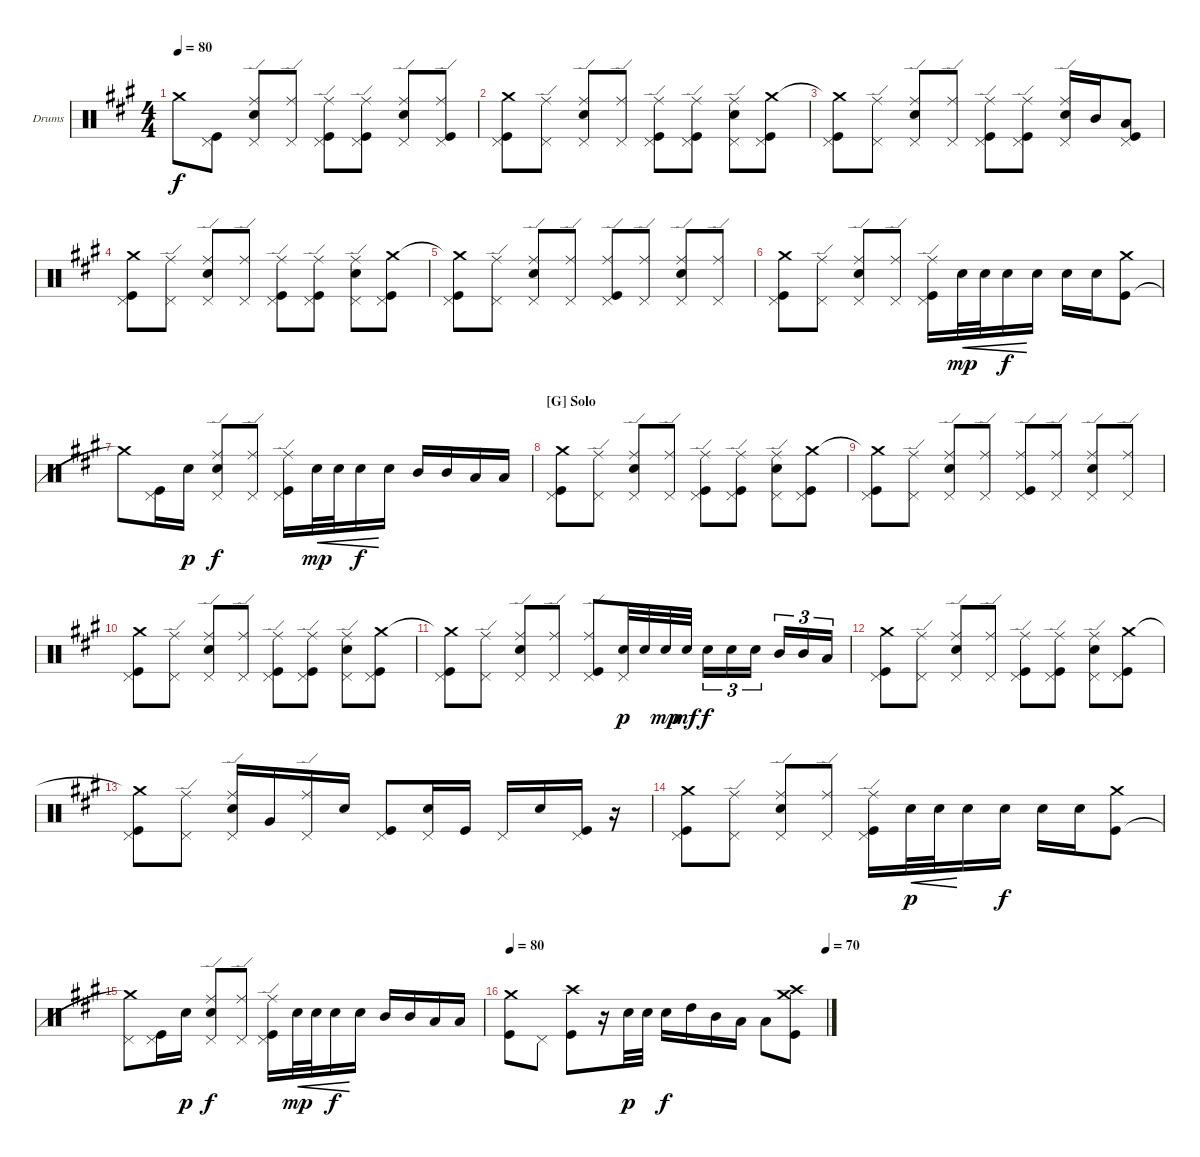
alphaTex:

\defaultSystemsLayout 4
\bracketExtendMode groupsimilarinstruments
\firstSystemTrackNameOrientation horizontal
\otherSystemsTrackNameOrientation horizontal
\track ("Dominic Boyce (Drums)" "Drums") {multiBarRest instrument percussion}
\staff {score}
\articulation defaults
\ts (4 4)
\tempo 80
\clef neutral
\ks a "Crash medium (hit)"{t}.8{dy f}
("Kick (hit)" "Pedal Hi-Hat (hit)").8 ("Snare (hit) 2" "Pedal Hi-Hat (hit)" "Ride (edge)").8 ("Pedal Hi-Hat (hit)" "Ride (edge)").8 ("Kick (hit)" "Pedal Hi-Hat (hit)" "Ride (edge)").8 ("Kick (hit)" "Pedal Hi-Hat (hit)" "Ride (edge)").8 ("Snare (hit) 2" "Pedal Hi-Hat (hit)" "Ride (edge)").8 ("Kick (hit)" "Pedal Hi-Hat (hit)" "Ride (edge)").8 |
("Kick (hit)" "Pedal Hi-Hat (hit)" "Crash medium (hit)").8 ("Pedal Hi-Hat (hit)" "Ride (edge)").8 ("Snare (hit) 2" "Pedal Hi-Hat (hit)" "Ride (edge)").8 ("Pedal Hi-Hat (hit)" "Ride (edge)").8 ("Kick (hit)" "Pedal Hi-Hat (hit)" "Ride (edge)").8 ("Kick (hit)" "Pedal Hi-Hat (hit)" "Ride (edge)").8 ("Snare (hit) 2" "Pedal Hi-Hat (hit)" "Ride (edge)").8 ("Kick (hit)" "Pedal Hi-Hat (hit)" "Crash medium (hit)").8 |
("Kick (hit)" "Pedal Hi-Hat (hit)" "Crash medium (hit)"{t}).8 ("Pedal Hi-Hat (hit)" "Ride (edge)").8 ("Snare (hit) 2" "Pedal Hi-Hat (hit)" "Ride (edge)").8 ("Pedal Hi-Hat (hit)" "Ride (edge)").8 ("Kick (hit)" "Pedal Hi-Hat (hit)" "Ride (edge)").8 ("Kick (hit)" "Pedal Hi-Hat (hit)" "Ride (edge)").8 ("Snare (hit) 2" "Pedal Hi-Hat (hit)" "Ride (edge)").16 "Mid Tom (hit)".16 ("Kick (hit)" "Pedal Hi-Hat (hit)" "Low Tom (hit)").8 |
("Kick (hit)" "Pedal Hi-Hat (hit)" "Crash medium (hit)").8 ("Pedal Hi-Hat (hit)" "Ride (edge)").8 ("Snare (hit) 2" "Pedal Hi-Hat (hit)" "Ride (edge)").8 ("Pedal Hi-Hat (hit)" "Ride (edge)").8 ("Kick (hit)" "Pedal Hi-Hat (hit)" "Ride (edge)").8 ("Kick (hit)" "Pedal Hi-Hat (hit)" "Ride (edge)").8 ("Snare (hit) 2" "Pedal Hi-Hat (hit)" "Ride (edge)").8 ("Kick (hit)" "Pedal Hi-Hat (hit)" "Crash medium (hit)").8 |
("Kick (hit)" "Pedal Hi-Hat (hit)" "Crash medium (hit)"{t}).8 ("Pedal Hi-Hat (hit)" "Ride (edge)").8 ("Snare (hit) 2" "Pedal Hi-Hat (hit)" "Ride (edge)").8 ("Pedal Hi-Hat (hit)" "Ride (edge)").8 ("Kick (hit)" "Pedal Hi-Hat (hit)" "Ride (edge)").8 ("Pedal Hi-Hat (hit)" "Ride (edge)").8 ("Snare (hit) 2" "Pedal Hi-Hat (hit)" "Ride (edge)").8 ("Pedal Hi-Hat (hit)" "Ride (edge)").8 |
("Kick (hit)" "Pedal Hi-Hat (hit)" "Crash medium (hit)").8 ("Pedal Hi-Hat (hit)" "Ride (edge)").8 ("Snare (hit) 2" "Pedal Hi-Hat (hit)" "Ride (edge)").8 ("Pedal Hi-Hat (hit)" "Ride (edge)").8 ("Kick (hit)" "Pedal Hi-Hat (hit)" "Ride (edge)").16 "Snare (hit) 2".32{cre dy mp} "Snare (hit) 2".32{cre} "Snare (hit) 2".16{cre dy f} "Snare (hit) 2".16 "Snare (hit) 2".16 "Snare (hit) 2".16 ("Kick (hit)" "Crash medium (hit)").8 |
"Crash medium (hit)"{t}.8 ("Kick (hit)" "Pedal Hi-Hat (hit)").16 "Snare (hit) 2".16{dy p} ("Snare (hit) 2" "Pedal Hi-Hat (hit)" "Ride (edge)").8{dy f} ("Pedal Hi-Hat (hit)" "Ride (edge)").8 ("Kick (hit)" "Pedal Hi-Hat (hit)" "Ride (edge)").16 "Snare (hit) 2".32{cre dy mp} "Snare (hit) 2".32{cre} "Snare (hit) 2".16{cre dy f} "Snare (hit) 2".16 "Mid Tom (hit)".16 "Mid Tom (hit)".16 "Low Tom (hit)".16 "Low Tom (hit)".16 |
\section ("G" "Solo")
("Kick (hit)" "Pedal Hi-Hat (hit)" "Crash medium (hit)").8 ("Pedal Hi-Hat (hit)" "Ride (edge)").8 ("Snare (hit) 2" "Pedal Hi-Hat (hit)" "Ride (edge)").8 ("Pedal Hi-Hat (hit)" "Ride (edge)").8 ("Kick (hit)" "Pedal Hi-Hat (hit)" "Ride (edge)").8 ("Kick (hit)" "Pedal Hi-Hat (hit)" "Ride (edge)").8 ("Snare (hit) 2" "Pedal Hi-Hat (hit)" "Ride (edge)").8 ("Kick (hit)" "Pedal Hi-Hat (hit)" "Crash medium (hit)").8 |
("Kick (hit)" "Pedal Hi-Hat (hit)" "Crash medium (hit)"{t}).8 ("Pedal Hi-Hat (hit)" "Ride (edge)").8 ("Snare (hit) 2" "Pedal Hi-Hat (hit)" "Ride (edge)").8 ("Pedal Hi-Hat (hit)" "Ride (edge)").8 ("Kick (hit)" "Pedal Hi-Hat (hit)" "Ride (edge)").8 ("Pedal Hi-Hat (hit)" "Ride (edge)").8 ("Snare (hit) 2" "Pedal Hi-Hat (hit)" "Ride (edge)").8 ("Pedal Hi-Hat (hit)" "Ride (edge)").8 |
("Kick (hit)" "Pedal Hi-Hat (hit)" "Crash medium (hit)").8 ("Pedal Hi-Hat (hit)" "Ride (edge)").8 ("Snare (hit) 2" "Pedal Hi-Hat (hit)" "Ride (edge)").8 ("Pedal Hi-Hat (hit)" "Ride (edge)").8 ("Kick (hit)" "Pedal Hi-Hat (hit)" "Ride (edge)").8 ("Kick (hit)" "Pedal Hi-Hat (hit)" "Ride (edge)").8 ("Snare (hit) 2" "Pedal Hi-Hat (hit)" "Ride (edge)").8 ("Kick (hit)" "Pedal Hi-Hat (hit)" "Crash medium (hit)").8 |
("Kick (hit)" "Pedal Hi-Hat (hit)" "Crash medium (hit)"{t}).8 ("Pedal Hi-Hat (hit)" "Ride (edge)").8 ("Snare (hit) 2" "Pedal Hi-Hat (hit)" "Ride (edge)").8 ("Pedal Hi-Hat (hit)" "Ride (edge)").8 ("Kick (hit)" "Pedal Hi-Hat (hit)" "Ride (edge)").8 ("Pedal Hi-Hat (hit)" "Snare (hit) 2").32{dy p} "Snare (hit) 2".32 "Snare (hit) 2".32{dy mp} "Snare (hit) 2".32{dy mf} "Snare (hit) 2".16{tu (3 2) dy f} "Snare (hit) 2".16{tu (3 2)} "Snare (hit) 2".16{tu (3 2)} "Mid Tom (hit)".16{tu (3 2)} "Mid Tom (hit)".16{tu (3 2)} "Low Tom (hit)".16{tu (3 2)} |
("Kick (hit)" "Pedal Hi-Hat (hit)" "Crash medium (hit)").8 ("Pedal Hi-Hat (hit)" "Ride (edge)").8 ("Snare (hit) 2" "Pedal Hi-Hat (hit)" "Ride (edge)").8 ("Pedal Hi-Hat (hit)" "Ride (edge)").8 ("Kick (hit)" "Pedal Hi-Hat (hit)" "Ride (edge)").8 ("Kick (hit)" "Pedal Hi-Hat (hit)" "Ride (edge)").8 ("Snare (hit) 2" "Pedal Hi-Hat (hit)" "Ride (edge)").8 ("Kick (hit)" "Pedal Hi-Hat (hit)" "Crash medium (hit)").8 |
("Kick (hit)" "Pedal Hi-Hat (hit)" "Crash medium (hit)"{t}).8 ("Pedal Hi-Hat (hit)" "Ride (edge)").8 ("Snare (hit) 2" "Pedal Hi-Hat (hit)" "Ride (edge)").16 "Very Low Tom (hit)".16 ("Pedal Hi-Hat (hit)" "Ride (edge)").16 "Snare (hit) 2".16 ("Kick (hit)" "Pedal Hi-Hat (hit)").8 ("Snare (hit) 2" "Pedal Hi-Hat (hit)").16 "Kick (hit)".16 "Pedal Hi-Hat (hit)".16 "Snare (hit) 2".16 ("Kick (hit)" "Pedal Hi-Hat (hit)").16 r.16 |
("Kick (hit)" "Pedal Hi-Hat (hit)" "Crash medium (hit)").8 ("Pedal Hi-Hat (hit)" "Ride (edge)").8 ("Snare (hit) 2" "Pedal Hi-Hat (hit)" "Ride (edge)").8 ("Pedal Hi-Hat (hit)" "Ride (edge)").8 ("Kick (hit)" "Pedal Hi-Hat (hit)" "Ride (edge)").16 "Snare (hit) 2".32{cre dy p} "Snare (hit) 2".32{cre} "Snare (hit) 2".16 "Snare (hit) 2".16{dy f} "Snare (hit) 2".16 "Snare (hit) 2".16 ("Kick (hit)" "Crash medium (hit)").8 |
("Crash medium (hit)"{t} "Pedal Hi-Hat (hit)").8 ("Kick (hit)" "Pedal Hi-Hat (hit)").16 "Snare (hit) 2".16{dy p} ("Snare (hit) 2" "Pedal Hi-Hat (hit)" "Ride (edge)").8{dy f} ("Pedal Hi-Hat (hit)" "Ride (edge)").8 ("Kick (hit)" "Pedal Hi-Hat (hit)" "Ride (edge)").16 "Snare (hit) 2".32{cre dy mp} "Snare (hit) 2".32{cre} "Snare (hit) 2".16{cre dy f} "Snare (hit) 2".16 "Mid Tom (hit)".16 "Mid Tom (hit)".16 "Low Tom (hit)".16 "Low Tom (hit)".16 |
\tempo 80
\tempo (70 1)
("Kick (hit)" "Crash medium (hit)").8 "Pedal Hi-Hat (hit)".8 ("Crash high (hit)" "Kick (hit)").8 r.16 "Snare (hit) 2".32{dy p} "Snare (hit) 2".32 "Snare (hit) 2".16{dy f} "High Tom (hit)".16 "Mid Tom (hit)".16 "Low Tom (hit)".16 "Low Tom (hit)".8 ("Kick (hit)" "Crash medium (hit)" "Crash high (hit)").8
